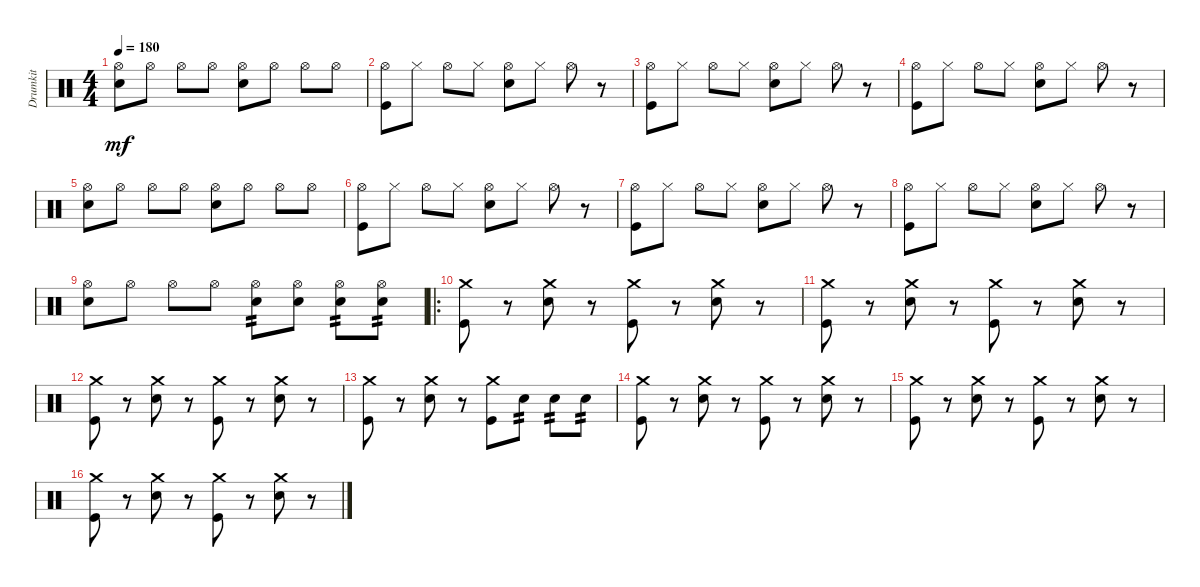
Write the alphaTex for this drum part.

\track ("Drumkit" "Drumkit") {instrument percussion}
\staff {score}
\articulation defaults
\ts (4 4)
\tempo 180
\clef neutral
\ks c
("Snare (hit) 2" "Hi-Hat (open)").8{dy mf} "Hi-Hat (open)".8 "Hi-Hat (open)".8 "Hi-Hat (open)".8 ("Snare (hit) 2" "Hi-Hat (open)").8 "Hi-Hat (open)".8 "Hi-Hat (open)".8 "Hi-Hat (open)".8 |
("Kick (hit)" "Hi-Hat (open)").8 "Hi-Hat (closed)".8 "Hi-Hat (open)".8 "Hi-Hat (closed)".8 ("Snare (hit) 2" "Hi-Hat (open)").8 "Hi-Hat (closed)".8 "Hi-Hat (open)".8 r.8 |
("Kick (hit)" "Hi-Hat (open)").8 "Hi-Hat (closed)".8 "Hi-Hat (open)".8 "Hi-Hat (closed)".8 ("Snare (hit) 2" "Hi-Hat (open)").8 "Hi-Hat (closed)".8 "Hi-Hat (open)".8 r.8 |
("Kick (hit)" "Hi-Hat (open)").8 "Hi-Hat (closed)".8 "Hi-Hat (open)".8 "Hi-Hat (closed)".8 ("Snare (hit) 2" "Hi-Hat (open)").8 "Hi-Hat (closed)".8 "Hi-Hat (open)".8 r.8 |
("Snare (hit) 2" "Hi-Hat (open)").8 "Hi-Hat (open)".8 "Hi-Hat (open)".8 "Hi-Hat (open)".8 ("Snare (hit) 2" "Hi-Hat (open)").8 "Hi-Hat (open)".8 "Hi-Hat (open)".8 "Hi-Hat (open)".8 |
("Kick (hit)" "Hi-Hat (open)").8 "Hi-Hat (closed)".8 "Hi-Hat (open)".8 "Hi-Hat (closed)".8 ("Snare (hit) 2" "Hi-Hat (open)").8 "Hi-Hat (closed)".8 "Hi-Hat (open)".8 r.8 |
("Kick (hit)" "Hi-Hat (open)").8 "Hi-Hat (closed)".8 "Hi-Hat (open)".8 "Hi-Hat (closed)".8 ("Snare (hit) 2" "Hi-Hat (open)").8 "Hi-Hat (closed)".8 "Hi-Hat (open)".8 r.8 |
("Kick (hit)" "Hi-Hat (open)").8 "Hi-Hat (closed)".8 "Hi-Hat (open)".8 "Hi-Hat (closed)".8 ("Snare (hit) 2" "Hi-Hat (open)").8 "Hi-Hat (closed)".8 "Hi-Hat (open)".8 r.8 |
("Snare (hit) 2" "Hi-Hat (open)").8 "Hi-Hat (open)".8 "Hi-Hat (open)".8 "Hi-Hat (open)".8 ("Snare (hit) 2" "Hi-Hat (open)").8{tp 2} ("Hi-Hat (open)" "Snare (hit) 2").8 ("Hi-Hat (open)" "Snare (hit) 2").8{tp 2} ("Hi-Hat (open)" "Snare (hit) 2").8{tp 2} |
\ro
("Kick (hit)" "Crash medium (hit)").8 r.8 ("Snare (hit) 2" "Crash medium (hit)").8 r.8 ("Kick (hit)" "Crash medium (hit)").8 r.8 ("Snare (hit) 2" "Crash medium (hit)").8 r.8 |
("Kick (hit)" "Crash medium (hit)").8 r.8 ("Snare (hit) 2" "Crash medium (hit)").8 r.8 ("Kick (hit)" "Crash medium (hit)").8 r.8 ("Snare (hit) 2" "Crash medium (hit)").8 r.8 |
("Kick (hit)" "Crash medium (hit)").8 r.8 ("Snare (hit) 2" "Crash medium (hit)").8 r.8 ("Kick (hit)" "Crash medium (hit)").8 r.8 ("Snare (hit) 2" "Crash medium (hit)").8 r.8 |
("Kick (hit)" "Crash medium (hit)").8 r.8 ("Snare (hit) 2" "Crash medium (hit)").8 r.8 ("Kick (hit)" "Crash medium (hit)").8 "Snare (hit) 2".8{tp 2} "Snare (hit) 2".8{tp 2} "Snare (hit) 2".8{tp 2} |
("Kick (hit)" "Crash medium (hit)").8 r.8 ("Snare (hit) 2" "Crash medium (hit)").8 r.8 ("Kick (hit)" "Crash medium (hit)").8 r.8 ("Snare (hit) 2" "Crash medium (hit)").8 r.8 |
("Kick (hit)" "Crash medium (hit)").8 r.8 ("Snare (hit) 2" "Crash medium (hit)").8 r.8 ("Kick (hit)" "Crash medium (hit)").8 r.8 ("Snare (hit) 2" "Crash medium (hit)").8 r.8 |
("Kick (hit)" "Crash medium (hit)").8 r.8 ("Snare (hit) 2" "Crash medium (hit)").8 r.8 ("Kick (hit)" "Crash medium (hit)").8 r.8 ("Snare (hit) 2" "Crash medium (hit)").8 r.8
